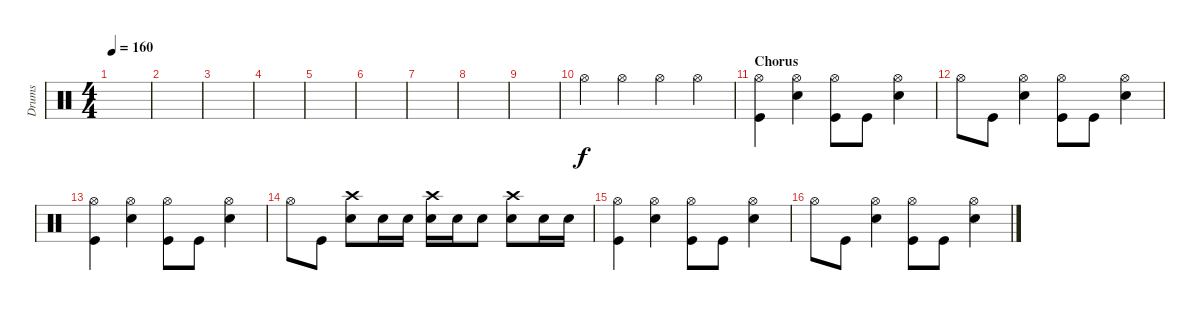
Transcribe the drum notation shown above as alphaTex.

\track ("Drums" "Drums") {instrument percussion}
\staff {score}
\articulation defaults
\ts (4 4)
\tempo 160
\clef neutral
\ks c
|
|
|
|
|
|
|
|
|
"Hi-Hat (open)".4 "Hi-Hat (open)".4 "Hi-Hat (open)".4 "Hi-Hat (open)".4 |
\section ("" "Chorus")
("Hi-Hat (open)" "Kick (hit)").4 ("Hi-Hat (open)" "Electric Snare (hit)").4 ("Hi-Hat (open)" "Kick (hit)").8 "Kick (hit)".8 ("Hi-Hat (open)" "Electric Snare (hit)").4 |
"Hi-Hat (open)".8 "Kick (hit)".8 ("Hi-Hat (open)" "Electric Snare (hit)").4 ("Hi-Hat (open)" "Kick (hit)").8 "Kick (hit)".8 ("Hi-Hat (open)" "Electric Snare (hit)").4 |
("Hi-Hat (open)" "Kick (hit)").4 ("Hi-Hat (open)" "Electric Snare (hit)").4 ("Hi-Hat (open)" "Kick (hit)").8 "Kick (hit)".8 ("Hi-Hat (open)" "Electric Snare (hit)").4 |
"Hi-Hat (open)".8 "Kick (hit)".8 ("Electric Snare (hit)" "Crash high (hit)").8 "Electric Snare (hit)".16 "Electric Snare (hit)".16 ("Electric Snare (hit)" "Crash high (hit)").16 "Electric Snare (hit)".16 "Electric Snare (hit)".8 ("Electric Snare (hit)" "Crash high (hit)").8 "Electric Snare (hit)".16 "Electric Snare (hit)".16 |
("Hi-Hat (open)" "Kick (hit)").4 ("Hi-Hat (open)" "Electric Snare (hit)").4 ("Hi-Hat (open)" "Kick (hit)").8 "Kick (hit)".8 ("Hi-Hat (open)" "Electric Snare (hit)").4 |
"Hi-Hat (open)".8 "Kick (hit)".8 ("Hi-Hat (open)" "Electric Snare (hit)").4 ("Hi-Hat (open)" "Kick (hit)").8 "Kick (hit)".8 ("Hi-Hat (open)" "Electric Snare (hit)").4
